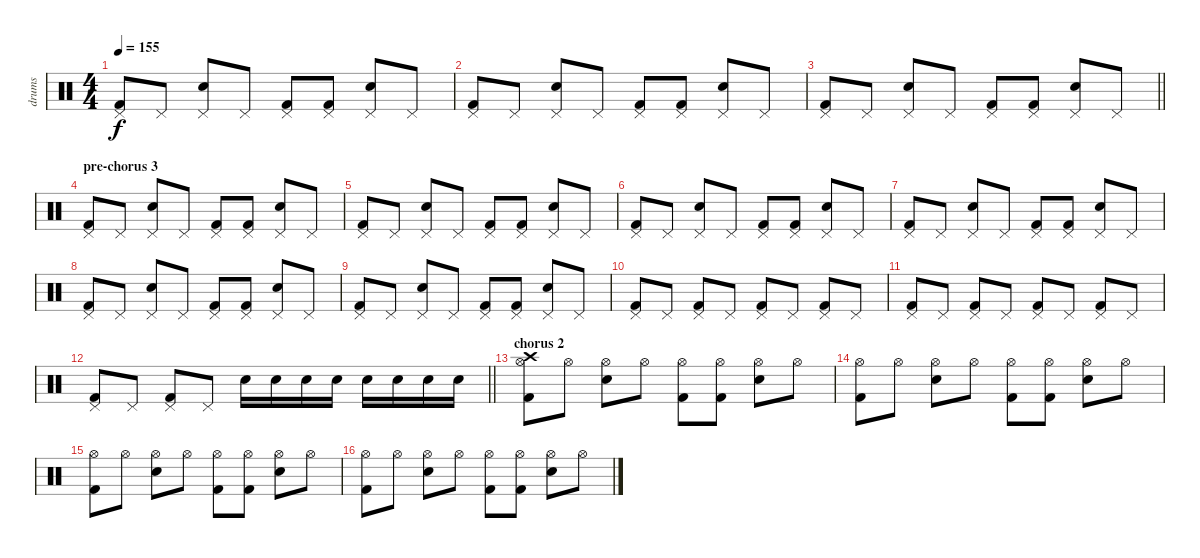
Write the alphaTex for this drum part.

\track ("drums" "drums") {instrument percussion}
\staff {score}
\articulation defaults
\ts (4 4)
\tempo 155
\clef neutral
\ks c
("Kick (hit) 2" "Pedal Hi-Hat (hit)").8{dy f} "Pedal Hi-Hat (hit)".8 ("Electric Snare (hit)" "Pedal Hi-Hat (hit)").8 "Pedal Hi-Hat (hit)".8 ("Kick (hit) 2" "Pedal Hi-Hat (hit)").8 ("Kick (hit) 2" "Pedal Hi-Hat (hit)").8 ("Electric Snare (hit)" "Pedal Hi-Hat (hit)").8 "Pedal Hi-Hat (hit)".8 |
("Kick (hit) 2" "Pedal Hi-Hat (hit)").8 "Pedal Hi-Hat (hit)".8 ("Electric Snare (hit)" "Pedal Hi-Hat (hit)").8 "Pedal Hi-Hat (hit)".8 ("Kick (hit) 2" "Pedal Hi-Hat (hit)").8 ("Kick (hit) 2" "Pedal Hi-Hat (hit)").8 ("Electric Snare (hit)" "Pedal Hi-Hat (hit)").8 "Pedal Hi-Hat (hit)".8 |
\barLineRight lightlight
("Kick (hit) 2" "Pedal Hi-Hat (hit)").8 "Pedal Hi-Hat (hit)".8 ("Electric Snare (hit)" "Pedal Hi-Hat (hit)").8 "Pedal Hi-Hat (hit)".8 ("Kick (hit) 2" "Pedal Hi-Hat (hit)").8 ("Kick (hit) 2" "Pedal Hi-Hat (hit)").8 ("Electric Snare (hit)" "Pedal Hi-Hat (hit)").8 "Pedal Hi-Hat (hit)".8 |
\section ("" "pre-chorus 3")
("Kick (hit) 2" "Pedal Hi-Hat (hit)").8 "Pedal Hi-Hat (hit)".8 ("Electric Snare (hit)" "Pedal Hi-Hat (hit)").8 "Pedal Hi-Hat (hit)".8 ("Kick (hit) 2" "Pedal Hi-Hat (hit)").8 ("Kick (hit) 2" "Pedal Hi-Hat (hit)").8 ("Electric Snare (hit)" "Pedal Hi-Hat (hit)").8 "Pedal Hi-Hat (hit)".8 |
("Kick (hit) 2" "Pedal Hi-Hat (hit)").8 "Pedal Hi-Hat (hit)".8 ("Electric Snare (hit)" "Pedal Hi-Hat (hit)").8 "Pedal Hi-Hat (hit)".8 ("Kick (hit) 2" "Pedal Hi-Hat (hit)").8 ("Kick (hit) 2" "Pedal Hi-Hat (hit)").8 ("Electric Snare (hit)" "Pedal Hi-Hat (hit)").8 "Pedal Hi-Hat (hit)".8 |
("Kick (hit) 2" "Pedal Hi-Hat (hit)").8 "Pedal Hi-Hat (hit)".8 ("Electric Snare (hit)" "Pedal Hi-Hat (hit)").8 "Pedal Hi-Hat (hit)".8 ("Kick (hit) 2" "Pedal Hi-Hat (hit)").8 ("Kick (hit) 2" "Pedal Hi-Hat (hit)").8 ("Electric Snare (hit)" "Pedal Hi-Hat (hit)").8 "Pedal Hi-Hat (hit)".8 |
("Kick (hit) 2" "Pedal Hi-Hat (hit)").8 "Pedal Hi-Hat (hit)".8 ("Electric Snare (hit)" "Pedal Hi-Hat (hit)").8 "Pedal Hi-Hat (hit)".8 ("Kick (hit) 2" "Pedal Hi-Hat (hit)").8 ("Kick (hit) 2" "Pedal Hi-Hat (hit)").8 ("Electric Snare (hit)" "Pedal Hi-Hat (hit)").8 "Pedal Hi-Hat (hit)".8 |
("Kick (hit) 2" "Pedal Hi-Hat (hit)").8 "Pedal Hi-Hat (hit)".8 ("Electric Snare (hit)" "Pedal Hi-Hat (hit)").8 "Pedal Hi-Hat (hit)".8 ("Kick (hit) 2" "Pedal Hi-Hat (hit)").8 ("Kick (hit) 2" "Pedal Hi-Hat (hit)").8 ("Electric Snare (hit)" "Pedal Hi-Hat (hit)").8 "Pedal Hi-Hat (hit)".8 |
("Kick (hit) 2" "Pedal Hi-Hat (hit)").8 "Pedal Hi-Hat (hit)".8 ("Electric Snare (hit)" "Pedal Hi-Hat (hit)").8 "Pedal Hi-Hat (hit)".8 ("Kick (hit) 2" "Pedal Hi-Hat (hit)").8 ("Kick (hit) 2" "Pedal Hi-Hat (hit)").8 ("Electric Snare (hit)" "Pedal Hi-Hat (hit)").8 "Pedal Hi-Hat (hit)".8 |
("Kick (hit) 2" "Pedal Hi-Hat (hit)").8 "Pedal Hi-Hat (hit)".8 ("Kick (hit) 2" "Pedal Hi-Hat (hit)").8 "Pedal Hi-Hat (hit)".8 ("Kick (hit) 2" "Pedal Hi-Hat (hit)").8 "Pedal Hi-Hat (hit)".8 ("Kick (hit) 2" "Pedal Hi-Hat (hit)").8 "Pedal Hi-Hat (hit)".8 |
("Kick (hit) 2" "Pedal Hi-Hat (hit)").8 "Pedal Hi-Hat (hit)".8 ("Kick (hit) 2" "Pedal Hi-Hat (hit)").8 "Pedal Hi-Hat (hit)".8 ("Kick (hit) 2" "Pedal Hi-Hat (hit)").8 "Pedal Hi-Hat (hit)".8 ("Kick (hit) 2" "Pedal Hi-Hat (hit)").8 "Pedal Hi-Hat (hit)".8 |
\barLineRight lightlight
("Kick (hit) 2" "Pedal Hi-Hat (hit)").8 "Pedal Hi-Hat (hit)".8 ("Kick (hit) 2" "Pedal Hi-Hat (hit)").8 "Pedal Hi-Hat (hit)".8 "Electric Snare (hit)".16 "Electric Snare (hit)".16 "Electric Snare (hit)".16 "Electric Snare (hit)".16 "Electric Snare (hit)".16 "Electric Snare (hit)".16 "Electric Snare (hit)".16 "Electric Snare (hit)".16 |
\section ("" "chorus 2")
("Kick (hit) 2" "Hi-Hat (open)" "Crash high (hit)").8 "Hi-Hat (open)".8 ("Electric Snare (hit)" "Hi-Hat (open)").8 "Hi-Hat (open)".8 ("Kick (hit) 2" "Hi-Hat (open)").8 ("Kick (hit) 2" "Hi-Hat (open)").8 ("Electric Snare (hit)" "Hi-Hat (open)").8 "Hi-Hat (open)".8 |
("Kick (hit) 2" "Hi-Hat (open)").8 "Hi-Hat (open)".8 ("Electric Snare (hit)" "Hi-Hat (open)").8 "Hi-Hat (open)".8 ("Kick (hit) 2" "Hi-Hat (open)").8 ("Kick (hit) 2" "Hi-Hat (open)").8 ("Electric Snare (hit)" "Hi-Hat (open)").8 "Hi-Hat (open)".8 |
("Kick (hit) 2" "Hi-Hat (open)").8 "Hi-Hat (open)".8 ("Electric Snare (hit)" "Hi-Hat (open)").8 "Hi-Hat (open)".8 ("Kick (hit) 2" "Hi-Hat (open)").8 ("Kick (hit) 2" "Hi-Hat (open)").8 ("Electric Snare (hit)" "Hi-Hat (open)").8 "Hi-Hat (open)".8 |
("Kick (hit) 2" "Hi-Hat (open)").8 "Hi-Hat (open)".8 ("Electric Snare (hit)" "Hi-Hat (open)").8 "Hi-Hat (open)".8 ("Kick (hit) 2" "Hi-Hat (open)").8 ("Kick (hit) 2" "Hi-Hat (open)").8 ("Electric Snare (hit)" "Hi-Hat (open)").8 "Hi-Hat (open)".8
